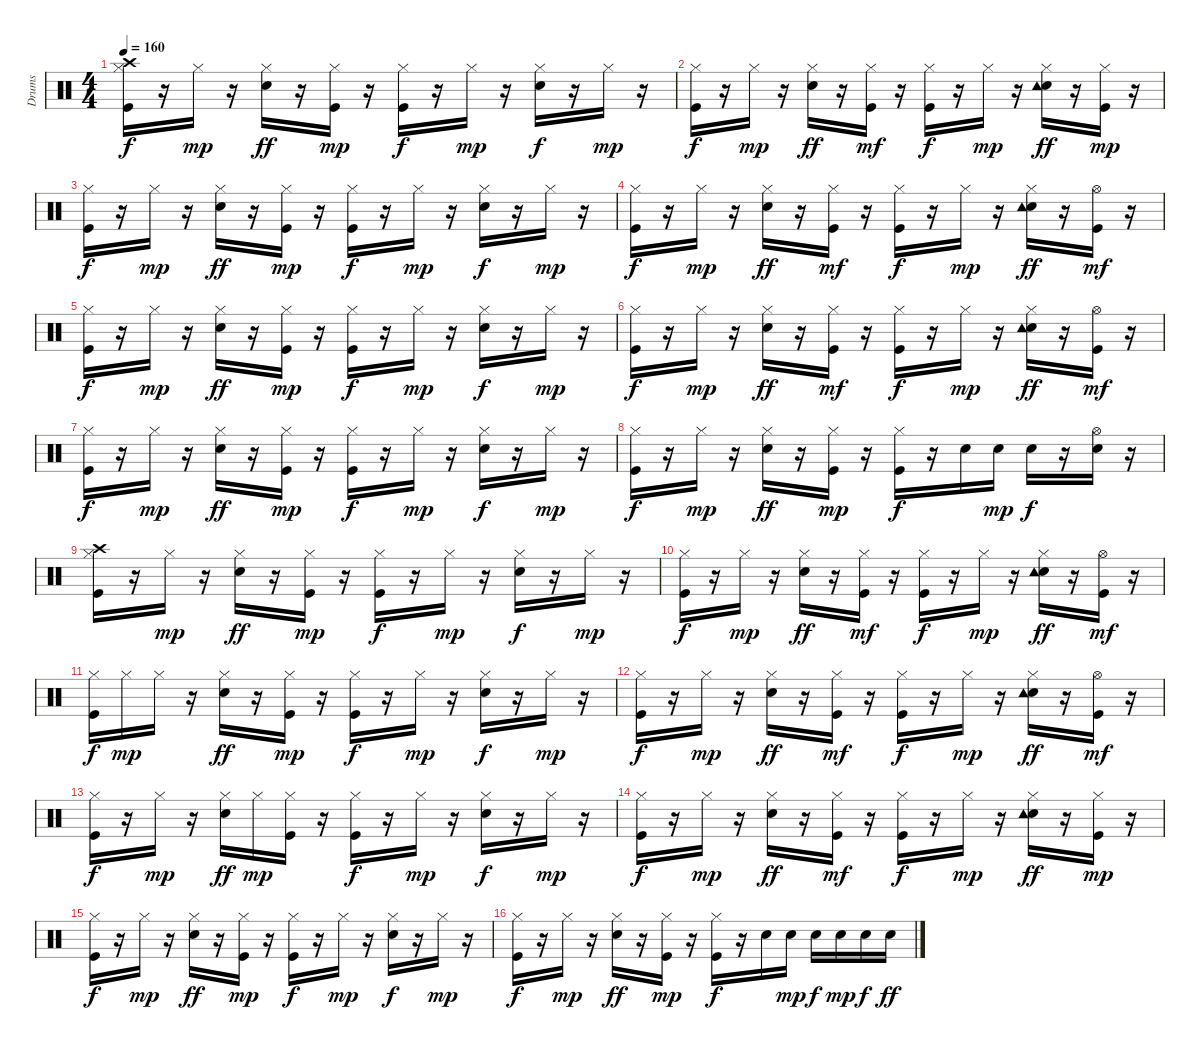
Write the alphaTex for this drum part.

\track ("Drums   " "Drums   ") {instrument percussion}
\staff {score}
\articulation defaults
\ts (4 4)
\tempo 160
\clef neutral
\ks c
("Kick (hit)" "Hi-Hat (closed)" "Crash high (hit)").16{dy f} r.16 "Hi-Hat (closed)".16{dy mp} r.16 ("Snare (hit) 2" "Hi-Hat (closed)").16{dy ff} r.16 ("Kick (hit)" "Hi-Hat (closed)").16{dy mp} r.16 ("Kick (hit)" "Hi-Hat (closed)").16{dy f} r.16 "Hi-Hat (closed)".16{dy mp} r.16 ("Snare (hit) 2" "Hi-Hat (closed)").16{dy f} r.16 "Hi-Hat (closed)".16{dy mp} r.16 |
("Kick (hit)" "Hi-Hat (closed)").16{dy f} r.16 "Hi-Hat (closed)".16{dy mp} r.16 ("Snare (hit) 2" "Hi-Hat (closed)").16{dy ff} r.16 ("Kick (hit)" "Hi-Hat (closed)").16{dy mf} r.16 ("Kick (hit)" "Hi-Hat (closed)").16{dy f} r.16 "Hi-Hat (closed)".16{dy mp} r.16 ("Snare (hit) 2" "Hi-Hat (closed)" "Tambourine (hit)").16{dy ff} r.16 ("Kick (hit)" "Hi-Hat (closed)").16{dy mp} r.16 |
("Kick (hit)" "Hi-Hat (closed)").16{dy f} r.16 "Hi-Hat (closed)".16{dy mp} r.16 ("Snare (hit) 2" "Hi-Hat (closed)").16{dy ff} r.16 ("Kick (hit)" "Hi-Hat (closed)").16{dy mp} r.16 ("Kick (hit)" "Hi-Hat (closed)").16{dy f} r.16 "Hi-Hat (closed)".16{dy mp} r.16 ("Snare (hit) 2" "Hi-Hat (closed)").16{dy f} r.16 "Hi-Hat (closed)".16{dy mp} r.16 |
("Kick (hit)" "Hi-Hat (closed)").16{dy f} r.16 "Hi-Hat (closed)".16{dy mp} r.16 ("Snare (hit) 2" "Hi-Hat (closed)").16{dy ff} r.16 ("Kick (hit)" "Hi-Hat (closed)").16{dy mf} r.16 ("Kick (hit)" "Hi-Hat (closed)").16{dy f} r.16 "Hi-Hat (closed)".16{dy mp} r.16 ("Snare (hit) 2" "Hi-Hat (closed)" "Tambourine (hit)").16{dy ff} r.16 ("Kick (hit)" "Hi-Hat (open)").16{dy mf} r.16 |
("Kick (hit)" "Hi-Hat (closed)").16{dy f} r.16 "Hi-Hat (closed)".16{dy mp} r.16 ("Snare (hit) 2" "Hi-Hat (closed)").16{dy ff} r.16 ("Kick (hit)" "Hi-Hat (closed)").16{dy mp} r.16 ("Kick (hit)" "Hi-Hat (closed)").16{dy f} r.16 "Hi-Hat (closed)".16{dy mp} r.16 ("Snare (hit) 2" "Hi-Hat (closed)").16{dy f} r.16 "Hi-Hat (closed)".16{dy mp} r.16 |
("Kick (hit)" "Hi-Hat (closed)").16{dy f} r.16 "Hi-Hat (closed)".16{dy mp} r.16 ("Snare (hit) 2" "Hi-Hat (closed)").16{dy ff} r.16 ("Kick (hit)" "Hi-Hat (closed)").16{dy mf} r.16 ("Kick (hit)" "Hi-Hat (closed)").16{dy f} r.16 "Hi-Hat (closed)".16{dy mp} r.16 ("Snare (hit) 2" "Hi-Hat (closed)" "Tambourine (hit)").16{dy ff} r.16 ("Kick (hit)" "Hi-Hat (open)").16{dy mf} r.16 |
("Kick (hit)" "Hi-Hat (closed)").16{dy f} r.16 "Hi-Hat (closed)".16{dy mp} r.16 ("Snare (hit) 2" "Hi-Hat (closed)").16{dy ff} r.16 ("Kick (hit)" "Hi-Hat (closed)").16{dy mp} r.16 ("Kick (hit)" "Hi-Hat (closed)").16{dy f} r.16 "Hi-Hat (closed)".16{dy mp} r.16 ("Snare (hit) 2" "Hi-Hat (closed)").16{dy f} r.16 "Hi-Hat (closed)".16{dy mp} r.16 |
("Kick (hit)" "Hi-Hat (closed)").16{dy f} r.16 "Hi-Hat (closed)".16{dy mp} r.16 ("Snare (hit) 2" "Hi-Hat (closed)").16{dy ff} r.16 ("Kick (hit)" "Hi-Hat (closed)").16{dy mp} r.16 ("Kick (hit)" "Hi-Hat (closed)").16{dy f} r.16 "Snare (hit) 2".16 "Snare (hit) 2".16{dy mp} "Snare (hit) 2".16{dy f} r.16 ("Snare (hit) 2" "Hi-Hat (open)").16 r.16 |
("Kick (hit)" "Hi-Hat (closed)" "Crash high (hit)").16 r.16 "Hi-Hat (closed)".16{dy mp} r.16 ("Snare (hit) 2" "Hi-Hat (closed)").16{dy ff} r.16 ("Kick (hit)" "Hi-Hat (closed)").16{dy mp} r.16 ("Kick (hit)" "Hi-Hat (closed)").16{dy f} r.16 "Hi-Hat (closed)".16{dy mp} r.16 ("Snare (hit) 2" "Hi-Hat (closed)").16{dy f} r.16 "Hi-Hat (closed)".16{dy mp} r.16 |
("Kick (hit)" "Hi-Hat (closed)").16{dy f} r.16 "Hi-Hat (closed)".16{dy mp} r.16 ("Snare (hit) 2" "Hi-Hat (closed)").16{dy ff} r.16 ("Kick (hit)" "Hi-Hat (closed)").16{dy mf} r.16 ("Kick (hit)" "Hi-Hat (closed)").16{dy f} r.16 "Hi-Hat (closed)".16{dy mp} r.16 ("Snare (hit) 2" "Hi-Hat (closed)" "Tambourine (hit)").16{dy ff} r.16 ("Kick (hit)" "Hi-Hat (open)").16{dy mf} r.16 |
("Kick (hit)" "Hi-Hat (closed)").16{dy f} "Hi-Hat (closed)".16{dy mp} "Hi-Hat (closed)".16 r.16 ("Snare (hit) 2" "Hi-Hat (closed)").16{dy ff} r.16 ("Kick (hit)" "Hi-Hat (closed)").16{dy mp} r.16 ("Kick (hit)" "Hi-Hat (closed)").16{dy f} r.16 "Hi-Hat (closed)".16{dy mp} r.16 ("Snare (hit) 2" "Hi-Hat (closed)").16{dy f} r.16 "Hi-Hat (closed)".16{dy mp} r.16 |
("Kick (hit)" "Hi-Hat (closed)").16{dy f} r.16 "Hi-Hat (closed)".16{dy mp} r.16 ("Snare (hit) 2" "Hi-Hat (closed)").16{dy ff} r.16 ("Kick (hit)" "Hi-Hat (closed)").16{dy mf} r.16 ("Kick (hit)" "Hi-Hat (closed)").16{dy f} r.16 "Hi-Hat (closed)".16{dy mp} r.16 ("Snare (hit) 2" "Hi-Hat (closed)" "Tambourine (hit)").16{dy ff} r.16 ("Kick (hit)" "Hi-Hat (open)").16{dy mf} r.16 |
("Kick (hit)" "Hi-Hat (closed)").16{dy f} r.16 "Hi-Hat (closed)".16{dy mp} r.16 ("Snare (hit) 2" "Hi-Hat (closed)").16{dy ff} "Hi-Hat (closed)".16{dy mp} ("Kick (hit)" "Hi-Hat (closed)").16 r.16 ("Kick (hit)" "Hi-Hat (closed)").16{dy f} r.16 "Hi-Hat (closed)".16{dy mp} r.16 ("Snare (hit) 2" "Hi-Hat (closed)").16{dy f} r.16 "Hi-Hat (closed)".16{dy mp} r.16 |
("Kick (hit)" "Hi-Hat (closed)").16{dy f} r.16 "Hi-Hat (closed)".16{dy mp} r.16 ("Snare (hit) 2" "Hi-Hat (closed)").16{dy ff} r.16 ("Kick (hit)" "Hi-Hat (closed)").16{dy mf} r.16 ("Kick (hit)" "Hi-Hat (closed)").16{dy f} r.16 "Hi-Hat (closed)".16{dy mp} r.16 ("Snare (hit) 2" "Hi-Hat (closed)" "Tambourine (hit)").16{dy ff} r.16 ("Kick (hit)" "Hi-Hat (closed)").16{dy mp} r.16 |
("Kick (hit)" "Hi-Hat (closed)").16{dy f} r.16 "Hi-Hat (closed)".16{dy mp} r.16 ("Snare (hit) 2" "Hi-Hat (closed)").16{dy ff} r.16 ("Kick (hit)" "Hi-Hat (closed)").16{dy mp} r.16 ("Kick (hit)" "Hi-Hat (closed)").16{dy f} r.16 "Hi-Hat (closed)".16{dy mp} r.16 ("Snare (hit) 2" "Hi-Hat (closed)").16{dy f} r.16 "Hi-Hat (closed)".16{dy mp} r.16 |
("Kick (hit)" "Hi-Hat (closed)").16{dy f} r.16 "Hi-Hat (closed)".16{dy mp} r.16 ("Snare (hit) 2" "Hi-Hat (closed)").16{dy ff} r.16 ("Kick (hit)" "Hi-Hat (closed)").16{dy mp} r.16 ("Kick (hit)" "Hi-Hat (closed)").16{dy f} r.16 "Snare (hit) 2".16 "Snare (hit) 2".16{dy mp} "Snare (hit) 2".16{dy f} "Snare (hit) 2".16{dy mp} "Snare (hit) 2".16{dy f} "Snare (hit) 2".16{dy ff}
